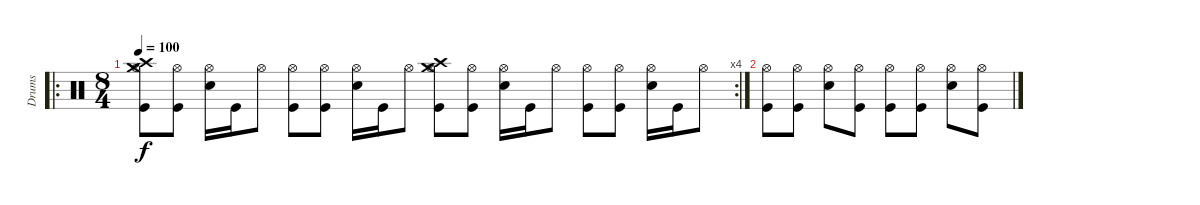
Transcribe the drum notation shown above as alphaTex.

\track ("Drums" "Drums") {instrument percussion}
\staff {score}
\articulation defaults
\ro
\rc 4
\ts (8 4)
\tempo 100
\clef neutral
\ks c
("Hi-Hat (open)" "Kick (hit)" "Crash high (hit)" "Crash medium (hit)").8{dy f} ("Hi-Hat (open)" "Kick (hit)").8 ("Hi-Hat (open)" "Snare (hit) 2").16 "Kick (hit)".16 "Hi-Hat (open)".8 ("Hi-Hat (open)" "Kick (hit)").8 ("Hi-Hat (open)" "Kick (hit)").8 ("Hi-Hat (open)" "Snare (hit) 2").16 "Kick (hit)".16 "Hi-Hat (open)".8 ("Hi-Hat (open)" "Kick (hit)" "Crash high (hit)" "Crash medium (hit)").8 ("Hi-Hat (open)" "Kick (hit)").8 ("Hi-Hat (open)" "Snare (hit) 2").16 "Kick (hit)".16 "Hi-Hat (open)".8 ("Hi-Hat (open)" "Kick (hit)").8 ("Hi-Hat (open)" "Kick (hit)").8 ("Hi-Hat (open)" "Snare (hit) 2").16 "Kick (hit)".16 "Hi-Hat (open)".8 |
("Hi-Hat (open)" "Kick (hit)").8 ("Hi-Hat (open)" "Kick (hit)").8 ("Hi-Hat (open)" "Snare (hit) 2").8 ("Hi-Hat (open)" "Kick (hit)").8 ("Hi-Hat (open)" "Kick (hit)").8 ("Hi-Hat (open)" "Kick (hit)").8 ("Hi-Hat (open)" "Snare (hit) 2").8 ("Hi-Hat (open)" "Kick (hit)").8
